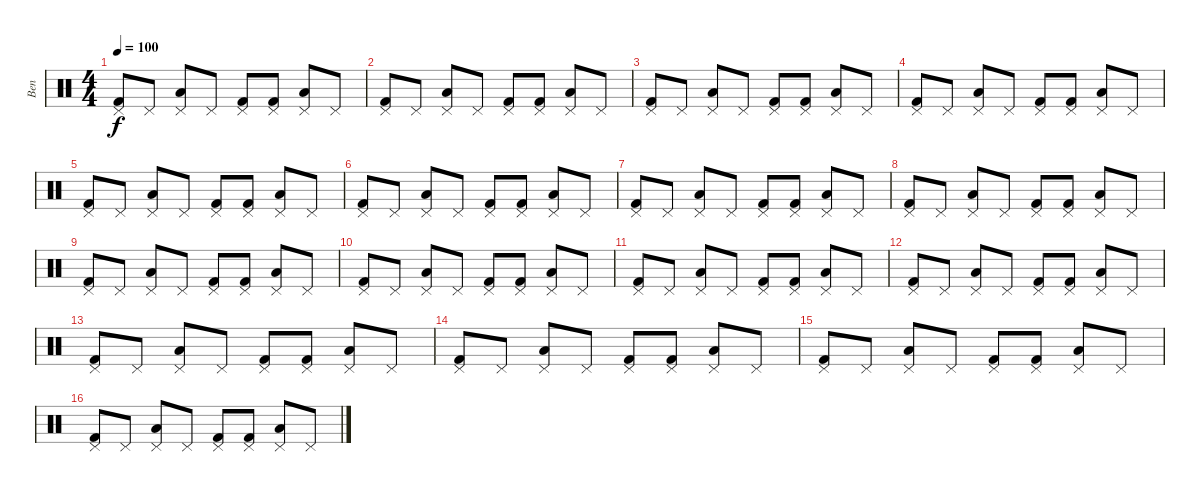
\track ("Ben" "Ben") {instrument percussion}
\staff {score}
\articulation defaults
\ts (4 4)
\tempo 100
\clef neutral
\ks c
("Pedal Hi-Hat (hit)" "Kick (hit) 2").8{dy f} "Pedal Hi-Hat (hit)".8 ("Pedal Hi-Hat (hit)" "Low Floor Tom (hit)").8 "Pedal Hi-Hat (hit)".8 ("Pedal Hi-Hat (hit)" "Kick (hit) 2").8 ("Pedal Hi-Hat (hit)" "Kick (hit) 2").8 ("Pedal Hi-Hat (hit)" "Low Floor Tom (hit)").8 "Pedal Hi-Hat (hit)".8 |
("Pedal Hi-Hat (hit)" "Kick (hit) 2").8 "Pedal Hi-Hat (hit)".8 ("Pedal Hi-Hat (hit)" "Low Floor Tom (hit)").8 "Pedal Hi-Hat (hit)".8 ("Pedal Hi-Hat (hit)" "Kick (hit) 2").8 ("Pedal Hi-Hat (hit)" "Kick (hit) 2").8 ("Pedal Hi-Hat (hit)" "Low Floor Tom (hit)").8 "Pedal Hi-Hat (hit)".8 |
("Pedal Hi-Hat (hit)" "Kick (hit) 2").8 "Pedal Hi-Hat (hit)".8 ("Pedal Hi-Hat (hit)" "Low Floor Tom (hit)").8 "Pedal Hi-Hat (hit)".8 ("Pedal Hi-Hat (hit)" "Kick (hit) 2").8 ("Pedal Hi-Hat (hit)" "Kick (hit) 2").8 ("Pedal Hi-Hat (hit)" "Low Floor Tom (hit)").8 "Pedal Hi-Hat (hit)".8 |
("Pedal Hi-Hat (hit)" "Kick (hit) 2").8 "Pedal Hi-Hat (hit)".8 ("Pedal Hi-Hat (hit)" "Low Floor Tom (hit)").8 "Pedal Hi-Hat (hit)".8 ("Pedal Hi-Hat (hit)" "Kick (hit) 2").8 ("Pedal Hi-Hat (hit)" "Kick (hit) 2").8 ("Pedal Hi-Hat (hit)" "Low Floor Tom (hit)").8 "Pedal Hi-Hat (hit)".8 |
("Pedal Hi-Hat (hit)" "Kick (hit) 2").8 "Pedal Hi-Hat (hit)".8 ("Pedal Hi-Hat (hit)" "Low Floor Tom (hit)").8 "Pedal Hi-Hat (hit)".8 ("Pedal Hi-Hat (hit)" "Kick (hit) 2").8 ("Pedal Hi-Hat (hit)" "Kick (hit) 2").8 ("Pedal Hi-Hat (hit)" "Low Floor Tom (hit)").8 "Pedal Hi-Hat (hit)".8 |
("Pedal Hi-Hat (hit)" "Kick (hit) 2").8 "Pedal Hi-Hat (hit)".8 ("Pedal Hi-Hat (hit)" "Low Floor Tom (hit)").8 "Pedal Hi-Hat (hit)".8 ("Pedal Hi-Hat (hit)" "Kick (hit) 2").8 ("Pedal Hi-Hat (hit)" "Kick (hit) 2").8 ("Pedal Hi-Hat (hit)" "Low Floor Tom (hit)").8 "Pedal Hi-Hat (hit)".8 |
("Pedal Hi-Hat (hit)" "Kick (hit) 2").8 "Pedal Hi-Hat (hit)".8 ("Pedal Hi-Hat (hit)" "Low Floor Tom (hit)").8 "Pedal Hi-Hat (hit)".8 ("Pedal Hi-Hat (hit)" "Kick (hit) 2").8 ("Pedal Hi-Hat (hit)" "Kick (hit) 2").8 ("Pedal Hi-Hat (hit)" "Low Floor Tom (hit)").8 "Pedal Hi-Hat (hit)".8 |
("Pedal Hi-Hat (hit)" "Kick (hit) 2").8 "Pedal Hi-Hat (hit)".8 ("Pedal Hi-Hat (hit)" "Low Floor Tom (hit)").8 "Pedal Hi-Hat (hit)".8 ("Pedal Hi-Hat (hit)" "Kick (hit) 2").8 ("Pedal Hi-Hat (hit)" "Kick (hit) 2").8 ("Pedal Hi-Hat (hit)" "Low Floor Tom (hit)").8 "Pedal Hi-Hat (hit)".8 |
("Pedal Hi-Hat (hit)" "Kick (hit) 2").8 "Pedal Hi-Hat (hit)".8 ("Pedal Hi-Hat (hit)" "Low Floor Tom (hit)").8 "Pedal Hi-Hat (hit)".8 ("Pedal Hi-Hat (hit)" "Kick (hit) 2").8 ("Pedal Hi-Hat (hit)" "Kick (hit) 2").8 ("Pedal Hi-Hat (hit)" "Low Floor Tom (hit)").8 "Pedal Hi-Hat (hit)".8 |
("Pedal Hi-Hat (hit)" "Kick (hit) 2").8 "Pedal Hi-Hat (hit)".8 ("Pedal Hi-Hat (hit)" "Low Floor Tom (hit)").8 "Pedal Hi-Hat (hit)".8 ("Pedal Hi-Hat (hit)" "Kick (hit) 2").8 ("Pedal Hi-Hat (hit)" "Kick (hit) 2").8 ("Pedal Hi-Hat (hit)" "Low Floor Tom (hit)").8 "Pedal Hi-Hat (hit)".8 |
("Pedal Hi-Hat (hit)" "Kick (hit) 2").8 "Pedal Hi-Hat (hit)".8 ("Pedal Hi-Hat (hit)" "Low Floor Tom (hit)").8 "Pedal Hi-Hat (hit)".8 ("Pedal Hi-Hat (hit)" "Kick (hit) 2").8 ("Pedal Hi-Hat (hit)" "Kick (hit) 2").8 ("Pedal Hi-Hat (hit)" "Low Floor Tom (hit)").8 "Pedal Hi-Hat (hit)".8 |
("Pedal Hi-Hat (hit)" "Kick (hit) 2").8 "Pedal Hi-Hat (hit)".8 ("Pedal Hi-Hat (hit)" "Low Floor Tom (hit)").8 "Pedal Hi-Hat (hit)".8 ("Pedal Hi-Hat (hit)" "Kick (hit) 2").8 ("Pedal Hi-Hat (hit)" "Kick (hit) 2").8 ("Pedal Hi-Hat (hit)" "Low Floor Tom (hit)").8 "Pedal Hi-Hat (hit)".8 |
("Pedal Hi-Hat (hit)" "Kick (hit) 2").8 "Pedal Hi-Hat (hit)".8 ("Pedal Hi-Hat (hit)" "Low Floor Tom (hit)").8 "Pedal Hi-Hat (hit)".8 ("Pedal Hi-Hat (hit)" "Kick (hit) 2").8 ("Pedal Hi-Hat (hit)" "Kick (hit) 2").8 ("Pedal Hi-Hat (hit)" "Low Floor Tom (hit)").8 "Pedal Hi-Hat (hit)".8 |
("Pedal Hi-Hat (hit)" "Kick (hit) 2").8 "Pedal Hi-Hat (hit)".8 ("Pedal Hi-Hat (hit)" "Low Floor Tom (hit)").8 "Pedal Hi-Hat (hit)".8 ("Pedal Hi-Hat (hit)" "Kick (hit) 2").8 ("Pedal Hi-Hat (hit)" "Kick (hit) 2").8 ("Pedal Hi-Hat (hit)" "Low Floor Tom (hit)").8 "Pedal Hi-Hat (hit)".8 |
("Pedal Hi-Hat (hit)" "Kick (hit) 2").8 "Pedal Hi-Hat (hit)".8 ("Pedal Hi-Hat (hit)" "Low Floor Tom (hit)").8 "Pedal Hi-Hat (hit)".8 ("Pedal Hi-Hat (hit)" "Kick (hit) 2").8 ("Pedal Hi-Hat (hit)" "Kick (hit) 2").8 ("Pedal Hi-Hat (hit)" "Low Floor Tom (hit)").8 "Pedal Hi-Hat (hit)".8 |
("Pedal Hi-Hat (hit)" "Kick (hit) 2").8 "Pedal Hi-Hat (hit)".8 ("Pedal Hi-Hat (hit)" "Low Floor Tom (hit)").8 "Pedal Hi-Hat (hit)".8 ("Pedal Hi-Hat (hit)" "Kick (hit) 2").8 ("Pedal Hi-Hat (hit)" "Kick (hit) 2").8 ("Pedal Hi-Hat (hit)" "Low Floor Tom (hit)").8 "Pedal Hi-Hat (hit)".8
